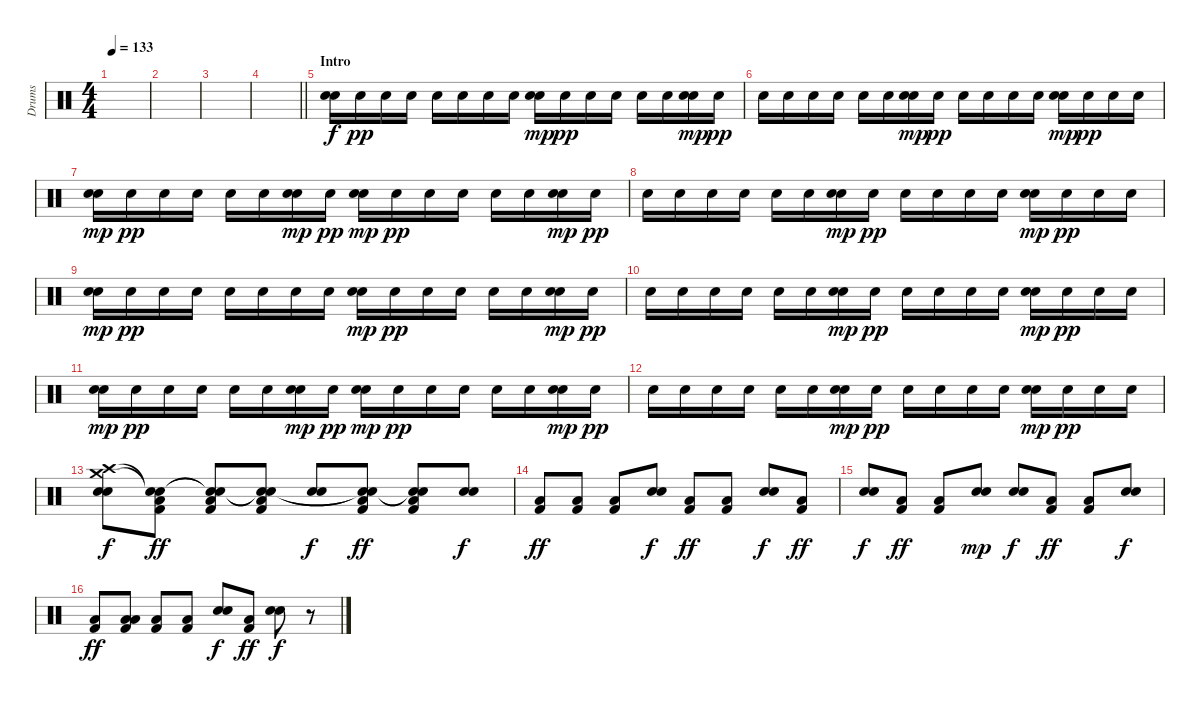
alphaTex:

\track ("Drums" "Drums") {instrument percussion}
\staff {score}
\articulation defaults
\ts (4 4)
\tempo 133
\clef neutral
\ks c
|
|
|
\barLineRight lightlight
|
\section ("" "Intro")
("Snare (hit) 2" "Snare (hit) 2").16 "Snare (hit) 2".16{dy pp} "Snare (hit) 2".16 "Snare (hit) 2".16 "Snare (hit) 2".16 "Snare (hit) 2".16 "Snare (hit) 2".16 "Snare (hit) 2".16 ("Snare (hit) 2" "Snare (hit) 2").16{dy mp} "Snare (hit) 2".16{dy pp} "Snare (hit) 2".16 "Snare (hit) 2".16 "Snare (hit) 2".16 "Snare (hit) 2".16 ("Snare (hit) 2" "Snare (hit) 2").16{dy mp} "Snare (hit) 2".16{dy pp} |
"Snare (hit) 2".16 "Snare (hit) 2".16 "Snare (hit) 2".16 "Snare (hit) 2".16 "Snare (hit) 2".16 "Snare (hit) 2".16 ("Snare (hit) 2" "Snare (hit) 2").16{dy mp} "Snare (hit) 2".16{dy pp} "Snare (hit) 2".16 "Snare (hit) 2".16 "Snare (hit) 2".16 "Snare (hit) 2".16 ("Snare (hit) 2" "Snare (hit) 2").16{dy mp} "Snare (hit) 2".16{dy pp} "Snare (hit) 2".16 "Snare (hit) 2".16 |
("Snare (hit) 2" "Snare (hit) 2").16{dy mp} "Snare (hit) 2".16{dy pp} "Snare (hit) 2".16 "Snare (hit) 2".16 "Snare (hit) 2".16 "Snare (hit) 2".16 ("Snare (hit) 2" "Snare (hit) 2").16{dy mp} "Snare (hit) 2".16{dy pp} ("Snare (hit) 2" "Snare (hit) 2").16{dy mp} "Snare (hit) 2".16{dy pp} "Snare (hit) 2".16 "Snare (hit) 2".16 "Snare (hit) 2".16 "Snare (hit) 2".16 ("Snare (hit) 2" "Snare (hit) 2").16{dy mp} "Snare (hit) 2".16{dy pp} |
"Snare (hit) 2".16 "Snare (hit) 2".16 "Snare (hit) 2".16 "Snare (hit) 2".16 "Snare (hit) 2".16 "Snare (hit) 2".16 ("Snare (hit) 2" "Snare (hit) 2").16{dy mp} "Snare (hit) 2".16{dy pp} "Snare (hit) 2".16 "Snare (hit) 2".16 "Snare (hit) 2".16 "Snare (hit) 2".16 ("Snare (hit) 2" "Snare (hit) 2").16{dy mp} "Snare (hit) 2".16{dy pp} "Snare (hit) 2".16 "Snare (hit) 2".16 |
("Snare (hit) 2" "Snare (hit) 2").16{dy mp} "Snare (hit) 2".16{dy pp} "Snare (hit) 2".16 "Snare (hit) 2".16 "Snare (hit) 2".16 "Snare (hit) 2".16 "Snare (hit) 2".16 "Snare (hit) 2".16 ("Snare (hit) 2" "Snare (hit) 2").16{dy mp} "Snare (hit) 2".16{dy pp} "Snare (hit) 2".16 "Snare (hit) 2".16 "Snare (hit) 2".16 "Snare (hit) 2".16 ("Snare (hit) 2" "Snare (hit) 2").16{dy mp} "Snare (hit) 2".16{dy pp} |
"Snare (hit) 2".16 "Snare (hit) 2".16 "Snare (hit) 2".16 "Snare (hit) 2".16 "Snare (hit) 2".16 "Snare (hit) 2".16 ("Snare (hit) 2" "Snare (hit) 2").16{dy mp} "Snare (hit) 2".16{dy pp} "Snare (hit) 2".16 "Snare (hit) 2".16 "Snare (hit) 2".16 "Snare (hit) 2".16 ("Snare (hit) 2" "Snare (hit) 2").16{dy mp} "Snare (hit) 2".16{dy pp} "Snare (hit) 2".16 "Snare (hit) 2".16 |
("Snare (hit) 2" "Snare (hit) 2").16{dy mp} "Snare (hit) 2".16{dy pp} "Snare (hit) 2".16 "Snare (hit) 2".16 "Snare (hit) 2".16 "Snare (hit) 2".16 ("Snare (hit) 2" "Snare (hit) 2").16{dy mp} "Snare (hit) 2".16{dy pp} ("Snare (hit) 2" "Snare (hit) 2").16{dy mp} "Snare (hit) 2".16{dy pp} "Snare (hit) 2".16 "Snare (hit) 2".16 "Snare (hit) 2".16 "Snare (hit) 2".16 ("Snare (hit) 2" "Snare (hit) 2").16{dy mp} "Snare (hit) 2".16{dy pp} |
"Snare (hit) 2".16 "Snare (hit) 2".16 "Snare (hit) 2".16 "Snare (hit) 2".16 "Snare (hit) 2".16 "Snare (hit) 2".16 ("Snare (hit) 2" "Snare (hit) 2").16{dy mp} "Snare (hit) 2".16{dy pp} "Snare (hit) 2".16 "Snare (hit) 2".16 "Snare (hit) 2".16 "Snare (hit) 2".16 ("Snare (hit) 2" "Snare (hit) 2").16{dy mp} "Snare (hit) 2".16{dy pp} "Snare (hit) 2".16 "Snare (hit) 2".16 |
("Snare (hit) 2" "Snare (hit) 2" "Crash medium (hit)" "Crash high (hit)").8{dy f} ("Low Floor Tom (hit)" "Kick (hit) 2" "Snare (hit)"{t} "Snare (hit)"{t}).8{dy ff} ("Low Floor Tom (hit)" "Kick (hit) 2" "Snare (hit)"{t} "Snare (hit)"{t}).8 ("Low Floor Tom (hit)" "Kick (hit) 2" "Snare (hit)"{t} "Snare (hit)"{t}).8 ("Snare (hit) 2" "Snare (hit) 2").8{dy f} ("Low Floor Tom (hit)" "Kick (hit) 2" "Snare (hit)"{t} "Snare (hit)"{t}).8{dy ff} ("Low Floor Tom (hit)" "Kick (hit) 2" "Snare (hit)"{t} "Snare (hit)"{t}).8 ("Snare (hit) 2" "Snare (hit) 2").8{dy f} |
("Low Floor Tom (hit)" "Kick (hit) 2").8{dy ff} ("Low Floor Tom (hit)" "Kick (hit) 2").8 ("Low Floor Tom (hit)" "Kick (hit) 2").8 ("Snare (hit) 2" "Snare (hit) 2").8{dy f} ("Low Floor Tom (hit)" "Kick (hit) 2").8{dy ff} ("Low Floor Tom (hit)" "Kick (hit) 2").8 ("Snare (hit) 2" "Snare (hit) 2").8{dy f} ("Low Floor Tom (hit)" "Kick (hit) 2").8{dy ff} |
("Snare (hit) 2" "Snare (hit) 2").8{dy f} ("Low Floor Tom (hit)" "Kick (hit) 2").8{dy ff} ("Low Floor Tom (hit)" "Kick (hit) 2").8 ("Snare (hit) 2" "Snare (hit) 2").8{dy mp} ("Snare (hit) 2" "Snare (hit) 2").8{dy f} ("Low Floor Tom (hit)" "Kick (hit) 2").8{dy ff} ("Low Floor Tom (hit)" "Kick (hit) 2").8 ("Snare (hit) 2" "Snare (hit) 2").8{dy f} |
("Low Floor Tom (hit)" "Kick (hit) 2").8{dy ff} ("Low Floor Tom (hit)" "Low Floor Tom (hit)" "Kick (hit) 2").8 ("Low Floor Tom (hit)" "Kick (hit) 2").8 ("Low Floor Tom (hit)" "Kick (hit) 2").8 ("Snare (hit) 2" "Snare (hit) 2").8{dy f} ("Low Floor Tom (hit)" "Kick (hit) 2").8{dy ff} ("Snare (hit) 2" "Snare (hit) 2").8{dy f} r.8
